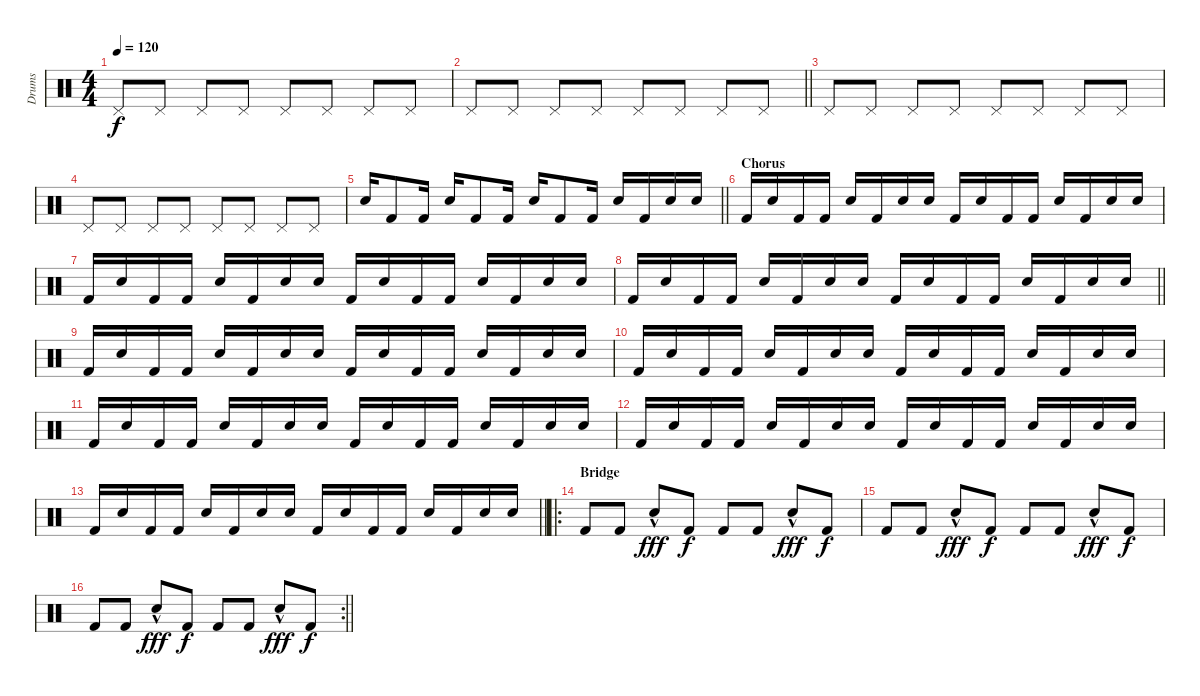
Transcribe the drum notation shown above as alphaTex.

\track ("Drums" "Drums") {instrument percussion}
\staff {score}
\articulation defaults
\ts (4 4)
\tempo 120
\clef neutral
\ks c "Pedal Hi-Hat (hit)".8{dy f} "Pedal Hi-Hat (hit)".8 "Pedal Hi-Hat (hit)".8 "Pedal Hi-Hat (hit)".8 "Pedal Hi-Hat (hit)".8 "Pedal Hi-Hat (hit)".8 "Pedal Hi-Hat (hit)".8 "Pedal Hi-Hat (hit)".8
|
\barLineRight lightlight "Pedal Hi-Hat (hit)".8 "Pedal Hi-Hat (hit)".8 "Pedal Hi-Hat (hit)".8 "Pedal Hi-Hat (hit)".8 "Pedal Hi-Hat (hit)".8 "Pedal Hi-Hat (hit)".8 "Pedal Hi-Hat (hit)".8 "Pedal Hi-Hat (hit)".8
|
"Pedal Hi-Hat (hit)".8 "Pedal Hi-Hat (hit)".8 "Pedal Hi-Hat (hit)".8 "Pedal Hi-Hat (hit)".8 "Pedal Hi-Hat (hit)".8 "Pedal Hi-Hat (hit)".8 "Pedal Hi-Hat (hit)".8 "Pedal Hi-Hat (hit)".8 |
"Pedal Hi-Hat (hit)".8 "Pedal Hi-Hat (hit)".8 "Pedal Hi-Hat (hit)".8 "Pedal Hi-Hat (hit)".8 "Pedal Hi-Hat (hit)".8 "Pedal Hi-Hat (hit)".8 "Pedal Hi-Hat (hit)".8 "Pedal Hi-Hat (hit)".8 |
\barLineRight lightlight "Snare (hit) 2".16 "Kick (hit) 2".8 "Kick (hit) 2".16 "Snare (hit) 2".16 "Kick (hit) 2".8 "Kick (hit) 2".16 "Snare (hit) 2".16 "Kick (hit) 2".8 "Kick (hit) 2".16 "Snare (hit) 2".16 "Kick (hit) 2".16 "Snare (hit) 2".16 "Snare (hit) 2".16
|
\section ("" "Chorus")
"Kick (hit) 2".16 "Snare (hit) 2".16 "Kick (hit) 2".16 "Kick (hit) 2".16 "Snare (hit) 2".16 "Kick (hit) 2".16 "Snare (hit) 2".16 "Snare (hit) 2".16 "Kick (hit) 2".16 "Snare (hit) 2".16 "Kick (hit) 2".16 "Kick (hit) 2".16 "Snare (hit) 2".16 "Kick (hit) 2".16 "Snare (hit) 2".16 "Snare (hit) 2".16 |
"Kick (hit) 2".16 "Snare (hit) 2".16 "Kick (hit) 2".16 "Kick (hit) 2".16 "Snare (hit) 2".16 "Kick (hit) 2".16 "Snare (hit) 2".16 "Snare (hit) 2".16 "Kick (hit) 2".16 "Snare (hit) 2".16 "Kick (hit) 2".16 "Kick (hit) 2".16 "Snare (hit) 2".16 "Kick (hit) 2".16 "Snare (hit) 2".16 "Snare (hit) 2".16 |
\barLineRight lightlight "Kick (hit) 2".16 "Snare (hit) 2".16 "Kick (hit) 2".16 "Kick (hit) 2".16 "Snare (hit) 2".16 "Kick (hit) 2".16 "Snare (hit) 2".16 "Snare (hit) 2".16 "Kick (hit) 2".16 "Snare (hit) 2".16 "Kick (hit) 2".16 "Kick (hit) 2".16 "Snare (hit) 2".16 "Kick (hit) 2".16 "Snare (hit) 2".16 "Snare (hit) 2".16
|
"Kick (hit) 2".16 "Snare (hit) 2".16 "Kick (hit) 2".16 "Kick (hit) 2".16 "Snare (hit) 2".16 "Kick (hit) 2".16 "Snare (hit) 2".16 "Snare (hit) 2".16 "Kick (hit) 2".16 "Snare (hit) 2".16 "Kick (hit) 2".16 "Kick (hit) 2".16 "Snare (hit) 2".16 "Kick (hit) 2".16 "Snare (hit) 2".16 "Snare (hit) 2".16 |
"Kick (hit) 2".16 "Snare (hit) 2".16 "Kick (hit) 2".16 "Kick (hit) 2".16 "Snare (hit) 2".16 "Kick (hit) 2".16 "Snare (hit) 2".16 "Snare (hit) 2".16 "Kick (hit) 2".16 "Snare (hit) 2".16 "Kick (hit) 2".16 "Kick (hit) 2".16 "Snare (hit) 2".16 "Kick (hit) 2".16 "Snare (hit) 2".16 "Snare (hit) 2".16 |
"Kick (hit) 2".16 "Snare (hit) 2".16 "Kick (hit) 2".16 "Kick (hit) 2".16 "Snare (hit) 2".16 "Kick (hit) 2".16 "Snare (hit) 2".16 "Snare (hit) 2".16 "Kick (hit) 2".16 "Snare (hit) 2".16 "Kick (hit) 2".16 "Kick (hit) 2".16 "Snare (hit) 2".16 "Kick (hit) 2".16 "Snare (hit) 2".16 "Snare (hit) 2".16 |
"Kick (hit) 2".16 "Snare (hit) 2".16 "Kick (hit) 2".16 "Kick (hit) 2".16 "Snare (hit) 2".16 "Kick (hit) 2".16 "Snare (hit) 2".16 "Snare (hit) 2".16 "Kick (hit) 2".16 "Snare (hit) 2".16 "Kick (hit) 2".16 "Kick (hit) 2".16 "Snare (hit) 2".16 "Kick (hit) 2".16 "Snare (hit) 2".16 "Snare (hit) 2".16 |
\barLineRight lightlight "Kick (hit) 2".16 "Snare (hit) 2".16 "Kick (hit) 2".16 "Kick (hit) 2".16 "Snare (hit) 2".16 "Kick (hit) 2".16 "Snare (hit) 2".16 "Snare (hit) 2".16 "Kick (hit) 2".16 "Snare (hit) 2".16 "Kick (hit) 2".16 "Kick (hit) 2".16 "Snare (hit) 2".16 "Kick (hit) 2".16 "Snare (hit) 2".16 "Snare (hit) 2".16
|
\ro
\section ("" "Bridge")
"Kick (hit) 2".8 "Kick (hit) 2".8 "Snare (hit) 2"{hac}.8{dy fff} "Kick (hit) 2".8{dy f} "Kick (hit) 2".8 "Kick (hit) 2".8 "Snare (hit) 2"{hac}.8{dy fff} "Kick (hit) 2".8{dy f} |
"Kick (hit) 2".8 "Kick (hit) 2".8 "Snare (hit) 2"{hac}.8{dy fff} "Kick (hit) 2".8{dy f} "Kick (hit) 2".8 "Kick (hit) 2".8 "Snare (hit) 2"{hac}.8{dy fff} "Kick (hit) 2".8{dy f} |
\rc 2
\barLineRight lightlight "Kick (hit) 2".8 "Kick (hit) 2".8 "Snare (hit) 2"{hac}.8{dy fff} "Kick (hit) 2".8{dy f} "Kick (hit) 2".8 "Kick (hit) 2".8 "Snare (hit) 2"{hac}.8{dy fff} "Kick (hit) 2".8{dy f}
